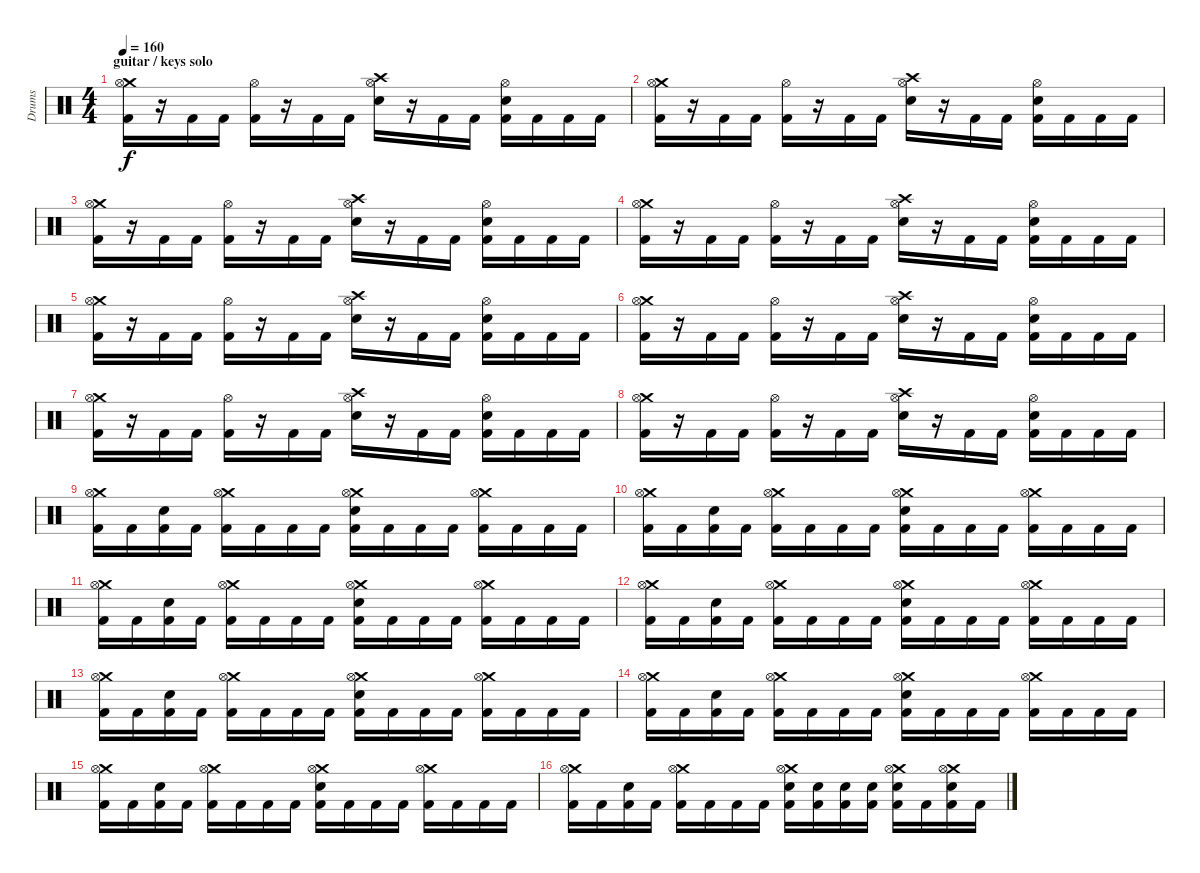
\track ("Drums" "Drums") {instrument percussion}
\staff {score}
\articulation defaults
\ts (4 4)
\section ("" "guitar / keys solo")
\tempo 160
\clef neutral
\ks c
("Crash medium (hit)" "Hi-Hat (open)" "Kick (hit) 2").16{dy f} r.16 "Kick (hit) 2".16 "Kick (hit) 2".16 ("Hi-Hat (open)" "Kick (hit) 2").16 r.16 "Kick (hit) 2".16 "Kick (hit) 2".16 ("Crash high (hit)" "Hi-Hat (open)" "Electric Snare (hit)").16 r.16 "Kick (hit) 2".16 "Kick (hit) 2".16 ("Hi-Hat (open)" "Electric Snare (hit)" "Kick (hit) 2").16 "Kick (hit) 2".16 "Kick (hit) 2".16 "Kick (hit) 2".16 |
("Crash medium (hit)" "Hi-Hat (open)" "Kick (hit) 2").16 r.16 "Kick (hit) 2".16 "Kick (hit) 2".16 ("Hi-Hat (open)" "Kick (hit) 2").16 r.16 "Kick (hit) 2".16 "Kick (hit) 2".16 ("Crash high (hit)" "Hi-Hat (open)" "Electric Snare (hit)").16 r.16 "Kick (hit) 2".16 "Kick (hit) 2".16 ("Hi-Hat (open)" "Electric Snare (hit)" "Kick (hit) 2").16 "Kick (hit) 2".16 "Kick (hit) 2".16 "Kick (hit) 2".16 |
("Crash medium (hit)" "Hi-Hat (open)" "Kick (hit) 2").16 r.16 "Kick (hit) 2".16 "Kick (hit) 2".16 ("Hi-Hat (open)" "Kick (hit) 2").16 r.16 "Kick (hit) 2".16 "Kick (hit) 2".16 ("Crash high (hit)" "Hi-Hat (open)" "Electric Snare (hit)").16 r.16 "Kick (hit) 2".16 "Kick (hit) 2".16 ("Hi-Hat (open)" "Electric Snare (hit)" "Kick (hit) 2").16 "Kick (hit) 2".16 "Kick (hit) 2".16 "Kick (hit) 2".16 |
("Crash medium (hit)" "Hi-Hat (open)" "Kick (hit) 2").16 r.16 "Kick (hit) 2".16 "Kick (hit) 2".16 ("Hi-Hat (open)" "Kick (hit) 2").16 r.16 "Kick (hit) 2".16 "Kick (hit) 2".16 ("Crash high (hit)" "Hi-Hat (open)" "Electric Snare (hit)").16 r.16 "Kick (hit) 2".16 "Kick (hit) 2".16 ("Hi-Hat (open)" "Electric Snare (hit)" "Kick (hit) 2").16 "Kick (hit) 2".16 "Kick (hit) 2".16 "Kick (hit) 2".16 |
("Crash medium (hit)" "Hi-Hat (open)" "Kick (hit) 2").16 r.16 "Kick (hit) 2".16 "Kick (hit) 2".16 ("Hi-Hat (open)" "Kick (hit) 2").16 r.16 "Kick (hit) 2".16 "Kick (hit) 2".16 ("Crash high (hit)" "Hi-Hat (open)" "Electric Snare (hit)").16 r.16 "Kick (hit) 2".16 "Kick (hit) 2".16 ("Hi-Hat (open)" "Electric Snare (hit)" "Kick (hit) 2").16 "Kick (hit) 2".16 "Kick (hit) 2".16 "Kick (hit) 2".16 |
("Crash medium (hit)" "Hi-Hat (open)" "Kick (hit) 2").16 r.16 "Kick (hit) 2".16 "Kick (hit) 2".16 ("Hi-Hat (open)" "Kick (hit) 2").16 r.16 "Kick (hit) 2".16 "Kick (hit) 2".16 ("Crash high (hit)" "Hi-Hat (open)" "Electric Snare (hit)").16 r.16 "Kick (hit) 2".16 "Kick (hit) 2".16 ("Hi-Hat (open)" "Electric Snare (hit)" "Kick (hit) 2").16 "Kick (hit) 2".16 "Kick (hit) 2".16 "Kick (hit) 2".16 |
("Crash medium (hit)" "Hi-Hat (open)" "Kick (hit) 2").16 r.16 "Kick (hit) 2".16 "Kick (hit) 2".16 ("Hi-Hat (open)" "Kick (hit) 2").16 r.16 "Kick (hit) 2".16 "Kick (hit) 2".16 ("Crash high (hit)" "Hi-Hat (open)" "Electric Snare (hit)").16 r.16 "Kick (hit) 2".16 "Kick (hit) 2".16 ("Hi-Hat (open)" "Electric Snare (hit)" "Kick (hit) 2").16 "Kick (hit) 2".16 "Kick (hit) 2".16 "Kick (hit) 2".16 |
("Crash medium (hit)" "Hi-Hat (open)" "Kick (hit) 2").16 r.16 "Kick (hit) 2".16 "Kick (hit) 2".16 ("Hi-Hat (open)" "Kick (hit) 2").16 r.16 "Kick (hit) 2".16 "Kick (hit) 2".16 ("Crash high (hit)" "Hi-Hat (open)" "Electric Snare (hit)").16 r.16 "Kick (hit) 2".16 "Kick (hit) 2".16 ("Hi-Hat (open)" "Electric Snare (hit)" "Kick (hit) 2").16 "Kick (hit) 2".16 "Kick (hit) 2".16 "Kick (hit) 2".16 |
("Crash medium (hit)" "Hi-Hat (open)" "Kick (hit) 2").16 "Kick (hit) 2".16 ("Electric Snare (hit)" "Kick (hit) 2").16 "Kick (hit) 2".16 ("Crash medium (hit)" "Hi-Hat (open)" "Kick (hit) 2").16 "Kick (hit) 2".16 "Kick (hit) 2".16 "Kick (hit) 2".16 ("Crash medium (hit)" "Hi-Hat (open)" "Electric Snare (hit)" "Kick (hit) 2").16 "Kick (hit) 2".16 "Kick (hit) 2".16 "Kick (hit) 2".16 ("Crash medium (hit)" "Hi-Hat (open)" "Kick (hit) 2").16 "Kick (hit) 2".16 "Kick (hit) 2".16 "Kick (hit) 2".16 |
("Crash medium (hit)" "Hi-Hat (open)" "Kick (hit) 2").16 "Kick (hit) 2".16 ("Electric Snare (hit)" "Kick (hit) 2").16 "Kick (hit) 2".16 ("Crash medium (hit)" "Hi-Hat (open)" "Kick (hit) 2").16 "Kick (hit) 2".16 "Kick (hit) 2".16 "Kick (hit) 2".16 ("Crash medium (hit)" "Hi-Hat (open)" "Electric Snare (hit)" "Kick (hit) 2").16 "Kick (hit) 2".16 "Kick (hit) 2".16 "Kick (hit) 2".16 ("Crash medium (hit)" "Hi-Hat (open)" "Kick (hit) 2").16 "Kick (hit) 2".16 "Kick (hit) 2".16 "Kick (hit) 2".16 |
("Crash medium (hit)" "Hi-Hat (open)" "Kick (hit) 2").16 "Kick (hit) 2".16 ("Electric Snare (hit)" "Kick (hit) 2").16 "Kick (hit) 2".16 ("Crash medium (hit)" "Hi-Hat (open)" "Kick (hit) 2").16 "Kick (hit) 2".16 "Kick (hit) 2".16 "Kick (hit) 2".16 ("Crash medium (hit)" "Hi-Hat (open)" "Electric Snare (hit)" "Kick (hit) 2").16 "Kick (hit) 2".16 "Kick (hit) 2".16 "Kick (hit) 2".16 ("Crash medium (hit)" "Hi-Hat (open)" "Kick (hit) 2").16 "Kick (hit) 2".16 "Kick (hit) 2".16 "Kick (hit) 2".16 |
("Crash medium (hit)" "Hi-Hat (open)" "Kick (hit) 2").16 "Kick (hit) 2".16 ("Electric Snare (hit)" "Kick (hit) 2").16 "Kick (hit) 2".16 ("Crash medium (hit)" "Hi-Hat (open)" "Kick (hit) 2").16 "Kick (hit) 2".16 "Kick (hit) 2".16 "Kick (hit) 2".16 ("Crash medium (hit)" "Hi-Hat (open)" "Electric Snare (hit)" "Kick (hit) 2").16 "Kick (hit) 2".16 "Kick (hit) 2".16 "Kick (hit) 2".16 ("Crash medium (hit)" "Hi-Hat (open)" "Kick (hit) 2").16 "Kick (hit) 2".16 "Kick (hit) 2".16 "Kick (hit) 2".16 |
("Crash medium (hit)" "Hi-Hat (open)" "Kick (hit) 2").16 "Kick (hit) 2".16 ("Electric Snare (hit)" "Kick (hit) 2").16 "Kick (hit) 2".16 ("Crash medium (hit)" "Hi-Hat (open)" "Kick (hit) 2").16 "Kick (hit) 2".16 "Kick (hit) 2".16 "Kick (hit) 2".16 ("Crash medium (hit)" "Hi-Hat (open)" "Electric Snare (hit)" "Kick (hit) 2").16 "Kick (hit) 2".16 "Kick (hit) 2".16 "Kick (hit) 2".16 ("Crash medium (hit)" "Hi-Hat (open)" "Kick (hit) 2").16 "Kick (hit) 2".16 "Kick (hit) 2".16 "Kick (hit) 2".16 |
("Crash medium (hit)" "Hi-Hat (open)" "Kick (hit) 2").16 "Kick (hit) 2".16 ("Electric Snare (hit)" "Kick (hit) 2").16 "Kick (hit) 2".16 ("Crash medium (hit)" "Hi-Hat (open)" "Kick (hit) 2").16 "Kick (hit) 2".16 "Kick (hit) 2".16 "Kick (hit) 2".16 ("Crash medium (hit)" "Hi-Hat (open)" "Electric Snare (hit)" "Kick (hit) 2").16 "Kick (hit) 2".16 "Kick (hit) 2".16 "Kick (hit) 2".16 ("Crash medium (hit)" "Hi-Hat (open)" "Kick (hit) 2").16 "Kick (hit) 2".16 "Kick (hit) 2".16 "Kick (hit) 2".16 |
("Crash medium (hit)" "Hi-Hat (open)" "Kick (hit) 2").16 "Kick (hit) 2".16 ("Electric Snare (hit)" "Kick (hit) 2").16 "Kick (hit) 2".16 ("Crash medium (hit)" "Hi-Hat (open)" "Kick (hit) 2").16 "Kick (hit) 2".16 "Kick (hit) 2".16 "Kick (hit) 2".16 ("Crash medium (hit)" "Hi-Hat (open)" "Electric Snare (hit)" "Kick (hit) 2").16 "Kick (hit) 2".16 "Kick (hit) 2".16 "Kick (hit) 2".16 ("Crash medium (hit)" "Hi-Hat (open)" "Kick (hit) 2").16 "Kick (hit) 2".16 "Kick (hit) 2".16 "Kick (hit) 2".16 |
("Crash medium (hit)" "Hi-Hat (open)" "Kick (hit) 2").16 "Kick (hit) 2".16 ("Electric Snare (hit)" "Kick (hit) 2").16 "Kick (hit) 2".16 ("Crash medium (hit)" "Hi-Hat (open)" "Kick (hit) 2").16 "Kick (hit) 2".16 "Kick (hit) 2".16 "Kick (hit) 2".16 ("Crash medium (hit)" "Hi-Hat (open)" "Electric Snare (hit)" "Kick (hit) 2").16 ("Electric Snare (hit)" "Kick (hit) 2").16 ("Electric Snare (hit)" "Kick (hit) 2").16 ("Electric Snare (hit)" "Kick (hit) 2").16 ("Crash medium (hit)" "Hi-Hat (open)" "Electric Snare (hit)" "Kick (hit) 2").16 "Kick (hit) 2".16 ("Crash medium (hit)" "Hi-Hat (open)" "Electric Snare (hit)" "Kick (hit) 2").16 "Kick (hit) 2".16
